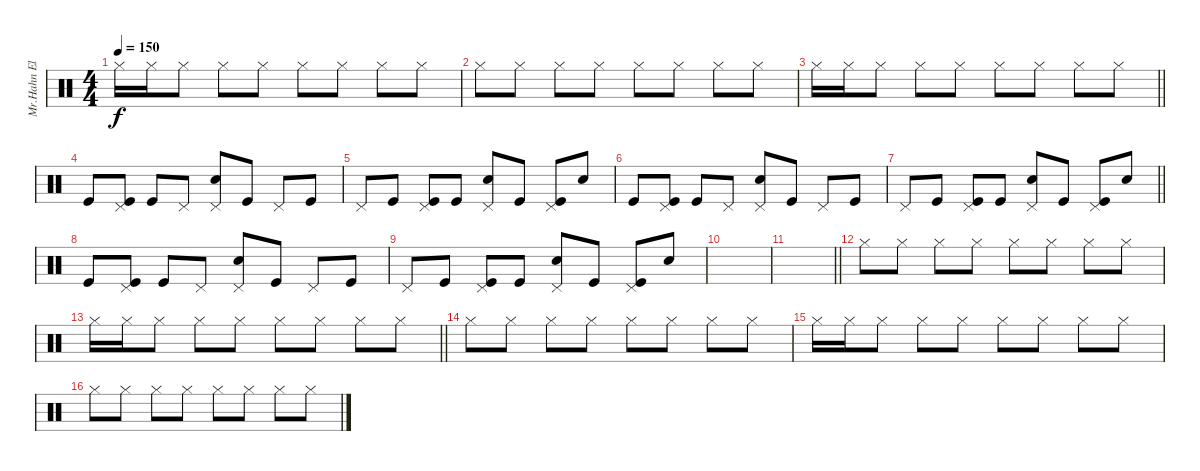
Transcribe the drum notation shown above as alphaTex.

\track ("Mr.Hahn Eletronic Drums" "Mr.Hahn El") {instrument percussion}
\staff {score}
\articulation defaults
\ts (4 4)
\tempo 150
\clef neutral
\ks c "Hi-Hat (closed)".16{dy f} "Hi-Hat (closed)".16 "Hi-Hat (closed)".8 "Hi-Hat (closed)".8 "Hi-Hat (closed)".8 "Hi-Hat (closed)".8 "Hi-Hat (closed)".8 "Hi-Hat (closed)".8 "Hi-Hat (closed)".8
|
"Hi-Hat (closed)".8 "Hi-Hat (closed)".8 "Hi-Hat (closed)".8 "Hi-Hat (closed)".8 "Hi-Hat (closed)".8 "Hi-Hat (closed)".8 "Hi-Hat (closed)".8 "Hi-Hat (closed)".8 |
\barLineRight lightlight "Hi-Hat (closed)".16 "Hi-Hat (closed)".16 "Hi-Hat (closed)".8 "Hi-Hat (closed)".8 "Hi-Hat (closed)".8 "Hi-Hat (closed)".8 "Hi-Hat (closed)".8 "Hi-Hat (closed)".8 "Hi-Hat (closed)".8
|
"Kick (hit)".8 ("Pedal Hi-Hat (hit)" "Kick (hit)").8 "Kick (hit)".8 "Pedal Hi-Hat (hit)".8 ("Pedal Hi-Hat (hit)" "Snare (hit) 2").8 "Kick (hit)".8 "Pedal Hi-Hat (hit)".8 "Kick (hit)".8 |
"Pedal Hi-Hat (hit)".8 "Kick (hit)".8 ("Pedal Hi-Hat (hit)" "Kick (hit)").8 "Kick (hit)".8 ("Pedal Hi-Hat (hit)" "Snare (hit) 2").8 "Kick (hit)".8 ("Pedal Hi-Hat (hit)" "Kick (hit)").8 "Snare (hit) 2".8 |
"Kick (hit)".8 ("Pedal Hi-Hat (hit)" "Kick (hit)").8 "Kick (hit)".8 "Pedal Hi-Hat (hit)".8 ("Pedal Hi-Hat (hit)" "Snare (hit) 2").8 "Kick (hit)".8 "Pedal Hi-Hat (hit)".8 "Kick (hit)".8 |
\barLineRight lightlight "Pedal Hi-Hat (hit)".8 "Kick (hit)".8
("Pedal Hi-Hat (hit)" "Kick (hit)").8 "Kick (hit)".8 ("Pedal Hi-Hat (hit)" "Snare (hit) 2").8 "Kick (hit)".8 ("Pedal Hi-Hat (hit)" "Kick (hit)").8 "Snare (hit) 2".8 |
"Kick (hit)".8 ("Pedal Hi-Hat (hit)" "Kick (hit)").8 "Kick (hit)".8 "Pedal Hi-Hat (hit)".8 ("Pedal Hi-Hat (hit)" "Snare (hit) 2").8 "Kick (hit)".8 "Pedal Hi-Hat (hit)".8 "Kick (hit)".8 |
"Pedal Hi-Hat (hit)".8 "Kick (hit)".8 ("Pedal Hi-Hat (hit)" "Kick (hit)").8 "Kick (hit)".8 ("Pedal Hi-Hat (hit)" "Snare (hit) 2").8 "Kick (hit)".8 ("Pedal Hi-Hat (hit)" "Kick (hit)").8 "Snare (hit) 2".8 |
|
\barLineRight lightlight
|
"Hi-Hat (closed)".8 "Hi-Hat (closed)".8 "Hi-Hat (closed)".8 "Hi-Hat (closed)".8 "Hi-Hat (closed)".8 "Hi-Hat (closed)".8 "Hi-Hat (closed)".8 "Hi-Hat (closed)".8 |
\barLineRight lightlight "Hi-Hat (closed)".16 "Hi-Hat (closed)".16 "Hi-Hat (closed)".8 "Hi-Hat (closed)".8 "Hi-Hat (closed)".8 "Hi-Hat (closed)".8 "Hi-Hat (closed)".8 "Hi-Hat (closed)".8 "Hi-Hat (closed)".8
|
"Hi-Hat (closed)".8 "Hi-Hat (closed)".8 "Hi-Hat (closed)".8 "Hi-Hat (closed)".8 "Hi-Hat (closed)".8 "Hi-Hat (closed)".8 "Hi-Hat (closed)".8 "Hi-Hat (closed)".8 |
"Hi-Hat (closed)".16 "Hi-Hat (closed)".16 "Hi-Hat (closed)".8 "Hi-Hat (closed)".8 "Hi-Hat (closed)".8 "Hi-Hat (closed)".8 "Hi-Hat (closed)".8 "Hi-Hat (closed)".8 "Hi-Hat (closed)".8 |
"Hi-Hat (closed)".8 "Hi-Hat (closed)".8 "Hi-Hat (closed)".8 "Hi-Hat (closed)".8 "Hi-Hat (closed)".8 "Hi-Hat (closed)".8 "Hi-Hat (closed)".8 "Hi-Hat (closed)".8
